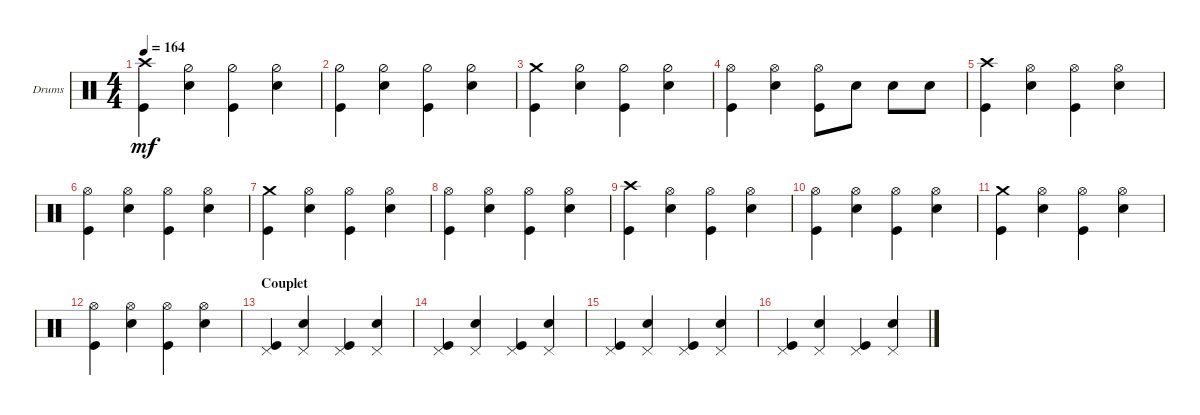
\defaultSystemsLayout 4
\bracketExtendMode groupsimilarinstruments
\firstSystemTrackNameOrientation horizontal
\otherSystemsTrackNameOrientation horizontal
\track ("Drumkit" "Drums") {instrument percussion}
\staff {score}
\articulation defaults
\ts (4 4)
\tempo 164
\clef neutral
\scale
0.333333
\ks c
("Kick (hit)" "Crash high (hit)").4{dy mf} ("Snare (hit) 2" "Hi-Hat (half)").4 ("Kick (hit)" "Hi-Hat (half)").4 ("Snare (hit) 2" "Hi-Hat (half)").4 |
\scale
0.333333 ("Kick (hit)" "Hi-Hat (half)").4 ("Snare (hit) 2" "Hi-Hat (half)").4 ("Kick (hit)" "Hi-Hat (half)").4 ("Snare (hit) 2" "Hi-Hat (half)").4 |
\scale
0.333333 ("Kick (hit)" "Crash medium (hit)").4 ("Snare (hit) 2" "Hi-Hat (half)").4 ("Kick (hit)" "Hi-Hat (half)").4 ("Snare (hit) 2" "Hi-Hat (half)").4 |
\scale
0.333333 ("Kick (hit)" "Hi-Hat (open)").4 ("Snare (hit) 2" "Hi-Hat (open)").4 ("Kick (hit)" "Hi-Hat (open)").8 "Snare (hit) 2".8 "Snare (hit) 2".8 "Snare (hit) 2".8 |
\scale
0.333333 ("Kick (hit)" "Crash high (hit)").4 ("Snare (hit) 2" "Hi-Hat (open)").4 ("Kick (hit)" "Hi-Hat (open)").4 ("Snare (hit) 2" "Hi-Hat (open)").4 |
\scale
0.333333 ("Kick (hit)" "Hi-Hat (open)").4 ("Snare (hit) 2" "Hi-Hat (open)").4 ("Kick (hit)" "Hi-Hat (open)").4 ("Snare (hit) 2" "Hi-Hat (open)").4 |
\scale
0.333333 ("Kick (hit)" "Crash medium (hit)").4 ("Snare (hit) 2" "Hi-Hat (open)").4 ("Kick (hit)" "Hi-Hat (open)").4 ("Snare (hit) 2" "Hi-Hat (open)").4 |
\scale
0.333333 ("Kick (hit)" "Hi-Hat (open)").4 ("Snare (hit) 2" "Hi-Hat (open)").4 ("Kick (hit)" "Hi-Hat (open)").4 ("Snare (hit) 2" "Hi-Hat (open)").4 |
\scale
0.333333 ("Kick (hit)" "Crash high (hit)").4 ("Snare (hit) 2" "Hi-Hat (open)").4 ("Kick (hit)" "Hi-Hat (open)").4 ("Snare (hit) 2" "Hi-Hat (open)").4 |
\scale
0.333333 ("Kick (hit)" "Hi-Hat (open)").4 ("Snare (hit) 2" "Hi-Hat (open)").4 ("Kick (hit)" "Hi-Hat (open)").4 ("Snare (hit) 2" "Hi-Hat (open)").4 |
\scale
0.333333 ("Kick (hit)" "Crash medium (hit)").4 ("Snare (hit) 2" "Hi-Hat (open)").4 ("Kick (hit)" "Hi-Hat (open)").4 ("Snare (hit) 2" "Hi-Hat (open)").4 |
\scale
0.333333 ("Kick (hit)" "Hi-Hat (open)").4 ("Snare (hit) 2" "Hi-Hat (open)").4 ("Kick (hit)" "Hi-Hat (open)").4 ("Snare (hit) 2" "Hi-Hat (open)").4 |
\section ("" "Couplet")
("Kick (hit)" "Pedal Hi-Hat (hit)").4 ("Snare (hit) 2" "Pedal Hi-Hat (hit)").4 ("Kick (hit)" "Pedal Hi-Hat (hit)").4 ("Snare (hit) 2" "Pedal Hi-Hat (hit)").4 |
("Kick (hit)" "Pedal Hi-Hat (hit)").4 ("Snare (hit) 2" "Pedal Hi-Hat (hit)").4 ("Kick (hit)" "Pedal Hi-Hat (hit)").4 ("Snare (hit) 2" "Pedal Hi-Hat (hit)").4 |
("Kick (hit)" "Pedal Hi-Hat (hit)").4 ("Snare (hit) 2" "Pedal Hi-Hat (hit)").4 ("Kick (hit)" "Pedal Hi-Hat (hit)").4 ("Snare (hit) 2" "Pedal Hi-Hat (hit)").4 |
("Kick (hit)" "Pedal Hi-Hat (hit)").4 ("Snare (hit) 2" "Pedal Hi-Hat (hit)").4 ("Kick (hit)" "Pedal Hi-Hat (hit)").4 ("Snare (hit) 2" "Pedal Hi-Hat (hit)").4
